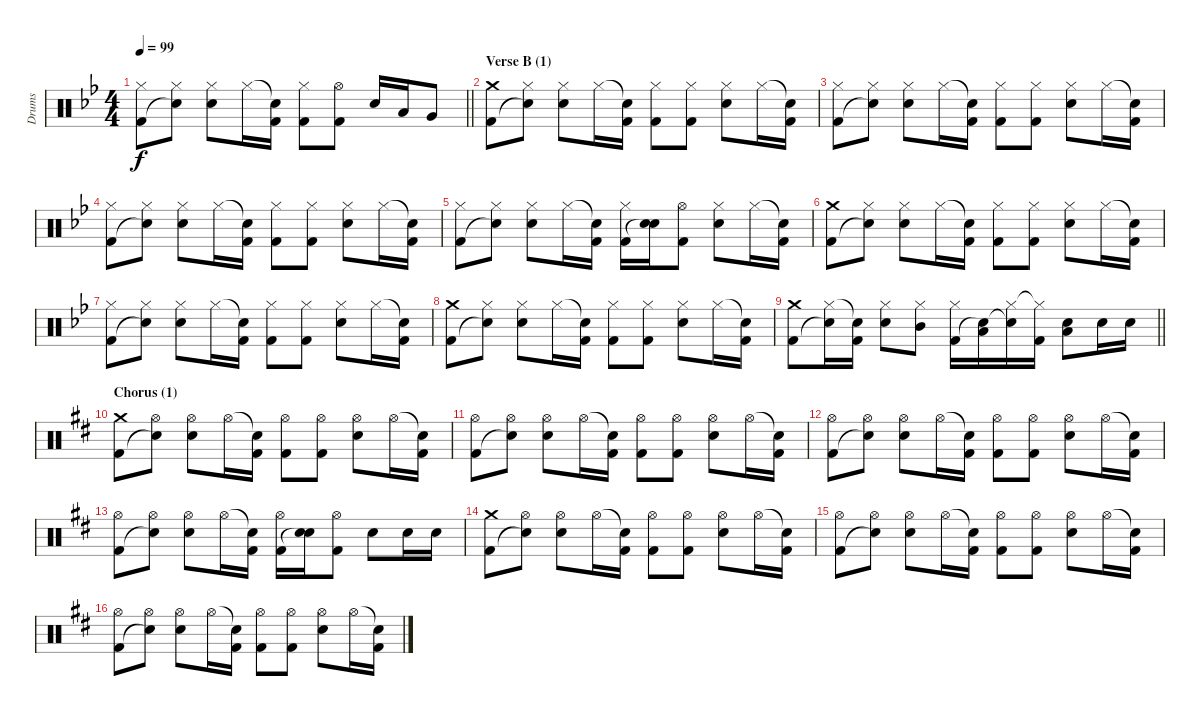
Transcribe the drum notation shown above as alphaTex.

\track ("Drums" "Drums") {instrument percussion}
\staff {score}
\articulation defaults
\ts (4 4)
\tempo 99
\clef neutral
\barLineRight lightlight
\ks gminor
("Hi-Hat (closed)" "Kick (hit) 2").8{dy f} ("Hi-Hat (closed)" "Snare (hit)"{t}).8 ("Hi-Hat (closed)" "Electric Snare (hit)").8 "Hi-Hat (closed)".16 ("Snare (hit)"{t} "Kick (hit) 2").16 ("Hi-Hat (closed)" "Kick (hit) 2").8 ("Hi-Hat (open)" "Kick (hit) 2").8 "Electric Snare (hit)".16 "Low Tom (hit)".16 "Very Low Tom (hit)".8 |
\section ("" "Verse B (1)")
("Crash medium (hit)" "Kick (hit) 2").8 ("Hi-Hat (closed)" "Snare (hit)"{t}).8 ("Hi-Hat (closed)" "Electric Snare (hit)").8 "Hi-Hat (closed)".16 ("Snare (hit)"{t} "Kick (hit) 2").16 ("Hi-Hat (closed)" "Kick (hit) 2").8 ("Hi-Hat (closed)" "Kick (hit) 2").8 ("Hi-Hat (closed)" "Electric Snare (hit)").8 "Hi-Hat (closed)".16 ("Snare (hit)"{t} "Kick (hit) 2").16 |
("Hi-Hat (closed)" "Kick (hit) 2").8 ("Hi-Hat (closed)" "Snare (hit)"{t}).8 ("Hi-Hat (closed)" "Electric Snare (hit)").8 "Hi-Hat (closed)".16 ("Snare (hit)"{t} "Kick (hit) 2").16 ("Hi-Hat (closed)" "Kick (hit) 2").8 ("Hi-Hat (closed)" "Kick (hit) 2").8 ("Hi-Hat (closed)" "Electric Snare (hit)").8 "Hi-Hat (closed)".16 ("Snare (hit)"{t} "Kick (hit) 2").16 |
("Hi-Hat (closed)" "Kick (hit) 2").8 ("Hi-Hat (closed)" "Snare (hit)"{t}).8 ("Hi-Hat (closed)" "Electric Snare (hit)").8 "Hi-Hat (closed)".16 ("Snare (hit)"{t} "Kick (hit) 2").16 ("Hi-Hat (closed)" "Kick (hit) 2").8 ("Hi-Hat (closed)" "Kick (hit) 2").8 ("Hi-Hat (closed)" "Electric Snare (hit)").8 "Hi-Hat (closed)".16 ("Snare (hit)"{t} "Kick (hit) 2").16 |
("Hi-Hat (closed)" "Kick (hit) 2").8 ("Hi-Hat (closed)" "Snare (hit)"{t}).8 ("Hi-Hat (closed)" "Electric Snare (hit)").8 "Hi-Hat (closed)".16 ("Snare (hit)"{t} "Kick (hit) 2").16 ("Hi-Hat (closed)" "Kick (hit) 2").16 ("Electric Snare (hit)" "Snare (hit)"{t}).16 ("Hi-Hat (open)" "Kick (hit) 2").8 ("Hi-Hat (closed)" "Electric Snare (hit)").8 "Hi-Hat (closed)".16 ("Snare (hit)"{t} "Kick (hit) 2").16 |
("Crash medium (hit)" "Kick (hit) 2").8 ("Hi-Hat (closed)" "Snare (hit)"{t}).8 ("Hi-Hat (closed)" "Electric Snare (hit)").8 "Hi-Hat (closed)".16 ("Snare (hit)"{t} "Kick (hit) 2").16 ("Hi-Hat (closed)" "Kick (hit) 2").8 ("Hi-Hat (closed)" "Kick (hit) 2").8 ("Hi-Hat (closed)" "Electric Snare (hit)").8 "Hi-Hat (closed)".16 ("Snare (hit)"{t} "Kick (hit) 2").16 |
("Hi-Hat (closed)" "Kick (hit) 2").8 ("Hi-Hat (closed)" "Snare (hit)"{t}).8 ("Hi-Hat (closed)" "Electric Snare (hit)").8 "Hi-Hat (closed)".16 ("Snare (hit)"{t} "Kick (hit) 2").16 ("Hi-Hat (closed)" "Kick (hit) 2").8 ("Hi-Hat (closed)" "Kick (hit) 2").8 ("Hi-Hat (closed)" "Electric Snare (hit)").8 "Hi-Hat (closed)".16 ("Snare (hit)"{t} "Kick (hit) 2").16 |
("Crash medium (hit)" "Kick (hit) 2").8 ("Hi-Hat (closed)" "Snare (hit)"{t}).8 ("Hi-Hat (closed)" "Electric Snare (hit)").8 "Hi-Hat (closed)".16 ("Snare (hit)"{t} "Kick (hit) 2").16 ("Hi-Hat (closed)" "Kick (hit) 2").8 ("Hi-Hat (closed)" "Kick (hit) 2").8 ("Hi-Hat (closed)" "Electric Snare (hit)").8 "Hi-Hat (closed)".16 ("Snare (hit)"{t} "Kick (hit) 2").16 |
\barLineRight lightlight
("Crash medium (hit)" "Kick (hit) 2").8 ("Hi-Hat (closed)" "Snare (hit)"{t}).16 ("Snare (hit)"{t} "Kick (hit) 2").16 ("Hi-Hat (closed)" "Electric Snare (hit)").8 ("Hi-Hat (closed)" "Mid Tom (hit)").8 ("Hi-Hat (closed)" "Kick (hit) 2").16 ("Low Tom (hit)" "Snare (hit)"{t}).16 ("Hi-Hat (closed)" "Snare (hit)"{t}).16 ("Hi-Hat (closed)"{t} "Kick (hit) 2").16 ("Electric Snare (hit)" "Low Floor Tom (hit)").8 "Electric Snare (hit)".16 "Electric Snare (hit)".16 |
\section ("" "Chorus (1)")
\ks d
("Crash medium (hit)" "Kick (hit) 2").8 ("Hi-Hat (open)" "Snare (hit)"{t}).8 ("Hi-Hat (open)" "Electric Snare (hit)").8 "Hi-Hat (open)".16 ("Snare (hit)"{t} "Kick (hit) 2").16 ("Hi-Hat (open)" "Kick (hit) 2").8 ("Hi-Hat (open)" "Kick (hit) 2").8 ("Hi-Hat (open)" "Electric Snare (hit)").8 "Hi-Hat (open)".16 ("Snare (hit)"{t} "Kick (hit) 2").16 |
("Hi-Hat (open)" "Kick (hit) 2").8 ("Hi-Hat (open)" "Snare (hit)"{t}).8 ("Hi-Hat (open)" "Electric Snare (hit)").8 "Hi-Hat (open)".16 ("Snare (hit)"{t} "Kick (hit) 2").16 ("Hi-Hat (open)" "Kick (hit) 2").8 ("Hi-Hat (open)" "Kick (hit) 2").8 ("Hi-Hat (open)" "Electric Snare (hit)").8 "Hi-Hat (open)".16 ("Snare (hit)"{t} "Kick (hit) 2").16 |
("Hi-Hat (open)" "Kick (hit) 2").8 ("Hi-Hat (open)" "Snare (hit)"{t}).8 ("Hi-Hat (open)" "Electric Snare (hit)").8 "Hi-Hat (open)".16 ("Snare (hit)"{t} "Kick (hit) 2").16 ("Hi-Hat (open)" "Kick (hit) 2").8 ("Hi-Hat (open)" "Kick (hit) 2").8 ("Hi-Hat (open)" "Electric Snare (hit)").8 "Hi-Hat (open)".16 ("Snare (hit)"{t} "Kick (hit) 2").16 |
("Hi-Hat (open)" "Kick (hit) 2").8 ("Hi-Hat (open)" "Snare (hit)"{t}).8 ("Hi-Hat (open)" "Electric Snare (hit)").8 "Hi-Hat (open)".16 ("Snare (hit)"{t} "Kick (hit) 2").16 ("Hi-Hat (open)" "Kick (hit) 2").16 ("Electric Snare (hit)" "Snare (hit)"{t}).16 ("Hi-Hat (open)" "Kick (hit) 2").8 "Electric Snare (hit)".8 "Electric Snare (hit)".16 "Electric Snare (hit)".16 |
("Crash medium (hit)" "Kick (hit) 2").8 ("Hi-Hat (open)" "Snare (hit)"{t}).8 ("Hi-Hat (open)" "Electric Snare (hit)").8 "Hi-Hat (open)".16 ("Snare (hit)"{t} "Kick (hit) 2").16 ("Hi-Hat (open)" "Kick (hit) 2").8 ("Hi-Hat (open)" "Kick (hit) 2").8 ("Hi-Hat (open)" "Electric Snare (hit)").8 "Hi-Hat (open)".16 ("Snare (hit)"{t} "Kick (hit) 2").16 |
("Hi-Hat (open)" "Kick (hit) 2").8 ("Hi-Hat (open)" "Snare (hit)"{t}).8 ("Hi-Hat (open)" "Electric Snare (hit)").8 "Hi-Hat (open)".16 ("Snare (hit)"{t} "Kick (hit) 2").16 ("Hi-Hat (open)" "Kick (hit) 2").8 ("Hi-Hat (open)" "Kick (hit) 2").8 ("Hi-Hat (open)" "Electric Snare (hit)").8 "Hi-Hat (open)".16 ("Snare (hit)"{t} "Kick (hit) 2").16 |
("Hi-Hat (open)" "Kick (hit) 2").8 ("Hi-Hat (open)" "Snare (hit)"{t}).8 ("Hi-Hat (open)" "Electric Snare (hit)").8 "Hi-Hat (open)".16 ("Snare (hit)"{t} "Kick (hit) 2").16 ("Hi-Hat (open)" "Kick (hit) 2").8 ("Hi-Hat (open)" "Kick (hit) 2").8 ("Hi-Hat (open)" "Electric Snare (hit)").8 "Hi-Hat (open)".16 ("Snare (hit)"{t} "Kick (hit) 2").16
